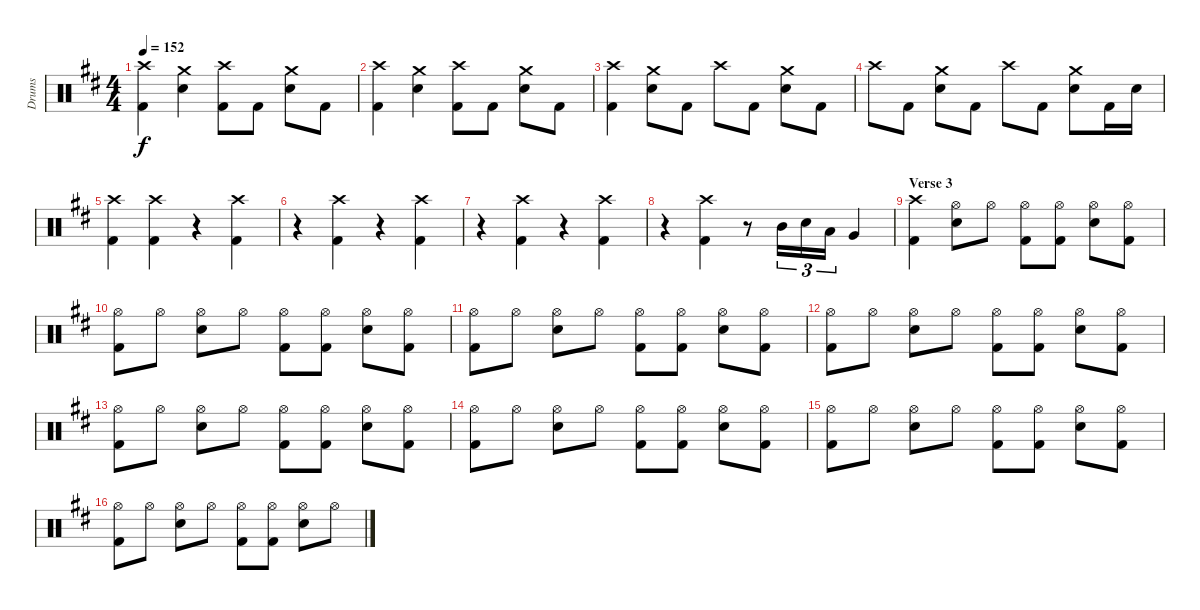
\track ("Drums" "Drums") {instrument percussion}
\staff {score}
\articulation defaults
\ts (4 4)
\tempo 152
\clef neutral
\ks bminor
("Kick (hit) 2" "Crash high (hit)").4{dy f} ("Snare (hit) 2" "Crash medium (hit)").4 ("Kick (hit) 2" "Crash high (hit)").8 "Kick (hit) 2".8 ("Snare (hit) 2" "Crash medium (hit)").8 "Kick (hit) 2".8 |
("Kick (hit) 2" "Crash high (hit)").4 ("Snare (hit) 2" "Crash medium (hit)").4 ("Kick (hit) 2" "Crash high (hit)").8 "Kick (hit) 2".8 ("Snare (hit) 2" "Crash medium (hit)").8 "Kick (hit) 2".8 |
("Kick (hit) 2" "Crash high (hit)").4 ("Snare (hit) 2" "Crash medium (hit)").8 "Kick (hit) 2".8 "Crash high (hit)".8 "Kick (hit) 2".8 ("Snare (hit) 2" "Crash medium (hit)").8 "Kick (hit) 2".8 |
"Crash high (hit)".8 "Kick (hit) 2".8 ("Snare (hit) 2" "Crash medium (hit)").8 "Kick (hit) 2".8 "Crash high (hit)".8 "Kick (hit) 2".8 ("Snare (hit) 2" "Crash medium (hit)").8 "Kick (hit) 2".16 "Snare (hit) 2".16 |
("Kick (hit) 2" "Crash high (hit)").4 ("Kick (hit) 2" "Crash high (hit)").4 r.4 ("Kick (hit) 2" "Crash high (hit)").4 |
r.4 ("Kick (hit) 2" "Crash high (hit)").4 r.4 ("Kick (hit) 2" "Crash high (hit)").4 |
r.4 ("Kick (hit) 2" "Crash high (hit)").4 r.4 ("Kick (hit) 2" "Crash high (hit)").4 |
r.4 ("Kick (hit) 2" "Crash high (hit)").4 r.8 "Mid Tom (hit)".16{tu (3 2)} "Snare (hit) 2".16{tu (3 2)} "Low Tom (hit)".16{tu (3 2)} "Very Low Tom (hit)".4 |
\section ("" "Verse 3")
("Kick (hit) 2" "Crash high (hit)").4 ("Snare (hit) 2" "Hi-Hat (open)").8 "Hi-Hat (open)".8 ("Kick (hit) 2" "Hi-Hat (open)").8 ("Kick (hit) 2" "Hi-Hat (open)").8 ("Snare (hit) 2" "Hi-Hat (open)").8 ("Kick (hit) 2" "Hi-Hat (open)").8 |
("Kick (hit) 2" "Hi-Hat (open)").8 "Hi-Hat (open)".8 ("Snare (hit) 2" "Hi-Hat (open)").8 "Hi-Hat (open)".8 ("Kick (hit) 2" "Hi-Hat (open)").8 ("Kick (hit) 2" "Hi-Hat (open)").8 ("Snare (hit) 2" "Hi-Hat (open)").8 ("Kick (hit) 2" "Hi-Hat (open)").8 |
("Kick (hit) 2" "Hi-Hat (open)").8 "Hi-Hat (open)".8 ("Snare (hit) 2" "Hi-Hat (open)").8 "Hi-Hat (open)".8 ("Kick (hit) 2" "Hi-Hat (open)").8 ("Kick (hit) 2" "Hi-Hat (open)").8 ("Snare (hit) 2" "Hi-Hat (open)").8 ("Kick (hit) 2" "Hi-Hat (open)").8 |
("Kick (hit) 2" "Hi-Hat (open)").8 "Hi-Hat (open)".8 ("Snare (hit) 2" "Hi-Hat (open)").8 "Hi-Hat (open)".8 ("Kick (hit) 2" "Hi-Hat (open)").8 ("Kick (hit) 2" "Hi-Hat (open)").8 ("Snare (hit) 2" "Hi-Hat (open)").8 ("Kick (hit) 2" "Hi-Hat (open)").8 |
("Kick (hit) 2" "Hi-Hat (open)").8 "Hi-Hat (open)".8 ("Snare (hit) 2" "Hi-Hat (open)").8 "Hi-Hat (open)".8 ("Kick (hit) 2" "Hi-Hat (open)").8 ("Kick (hit) 2" "Hi-Hat (open)").8 ("Snare (hit) 2" "Hi-Hat (open)").8 ("Kick (hit) 2" "Hi-Hat (open)").8 |
("Kick (hit) 2" "Hi-Hat (open)").8 "Hi-Hat (open)".8 ("Snare (hit) 2" "Hi-Hat (open)").8 "Hi-Hat (open)".8 ("Kick (hit) 2" "Hi-Hat (open)").8 ("Kick (hit) 2" "Hi-Hat (open)").8 ("Snare (hit) 2" "Hi-Hat (open)").8 ("Kick (hit) 2" "Hi-Hat (open)").8 |
("Kick (hit) 2" "Hi-Hat (open)").8 "Hi-Hat (open)".8 ("Snare (hit) 2" "Hi-Hat (open)").8 "Hi-Hat (open)".8 ("Kick (hit) 2" "Hi-Hat (open)").8 ("Kick (hit) 2" "Hi-Hat (open)").8 ("Snare (hit) 2" "Hi-Hat (open)").8 ("Kick (hit) 2" "Hi-Hat (open)").8 |
("Kick (hit) 2" "Hi-Hat (open)").8 "Hi-Hat (open)".8 ("Snare (hit) 2" "Hi-Hat (open)").8 "Hi-Hat (open)".8 ("Kick (hit) 2" "Hi-Hat (open)").8 ("Kick (hit) 2" "Hi-Hat (open)").8 ("Snare (hit) 2" "Hi-Hat (open)").8 "Hi-Hat (open)".8
